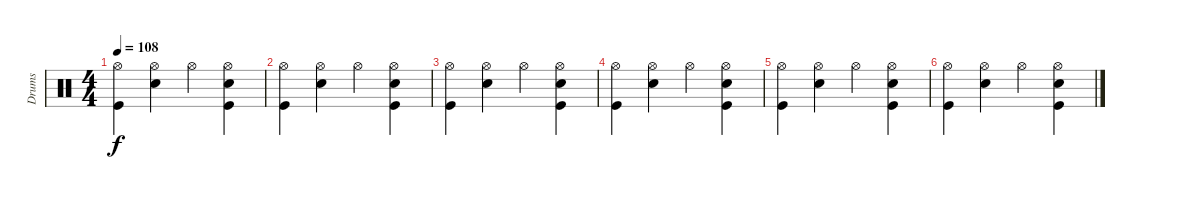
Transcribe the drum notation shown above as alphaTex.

\track ("Drums" "Drums") {instrument percussion}
\staff {score}
\articulation defaults
\ts (4 4)
\tempo 108
\clef neutral
\ks c
("Hi-Hat (open)" "Kick (hit)").4{dy f} ("Hi-Hat (open)" "Snare (hit) 2").4 "Hi-Hat (open)".4 ("Hi-Hat (open)" "Snare (hit) 2" "Kick (hit)").4 |
("Hi-Hat (open)" "Kick (hit)").4 ("Hi-Hat (open)" "Snare (hit) 2").4 "Hi-Hat (open)".4 ("Hi-Hat (open)" "Snare (hit) 2" "Kick (hit)").4 |
("Hi-Hat (open)" "Kick (hit)").4 ("Hi-Hat (open)" "Snare (hit) 2").4 "Hi-Hat (open)".4 ("Hi-Hat (open)" "Snare (hit) 2" "Kick (hit)").4 |
("Hi-Hat (open)" "Kick (hit)").4 ("Hi-Hat (open)" "Snare (hit) 2").4 "Hi-Hat (open)".4 ("Hi-Hat (open)" "Snare (hit) 2" "Kick (hit)").4 |
("Hi-Hat (open)" "Kick (hit)").4 ("Hi-Hat (open)" "Snare (hit) 2").4 "Hi-Hat (open)".4 ("Hi-Hat (open)" "Snare (hit) 2" "Kick (hit)").4 |
("Hi-Hat (open)" "Kick (hit)").4 ("Hi-Hat (open)" "Snare (hit) 2").4 "Hi-Hat (open)".4 ("Hi-Hat (open)" "Snare (hit) 2" "Kick (hit)").4
